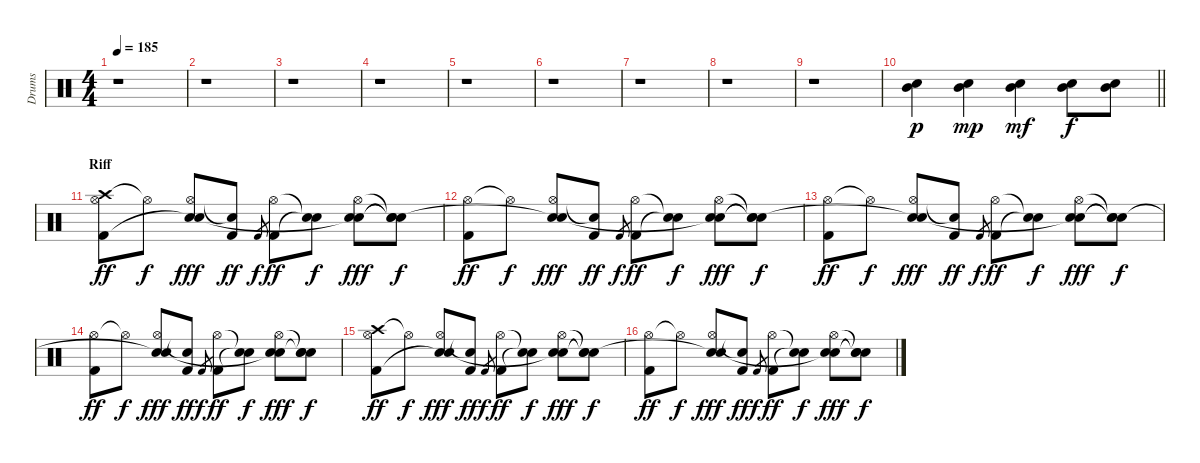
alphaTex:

\track ("Drums" "Drums") {instrument percussion}
\staff {score}
\articulation defaults
\ts (4 4)
\tempo 185
\clef neutral
\ks c
r.1{dy f} |
r.1 |
r.1 |
r.1 |
r.1 |
r.1 |
r.1 |
r.1 |
r.1 |
\barLineRight lightlight
("Electric Snare (hit)" "Mid Tom (hit)").4{dy p} ("Electric Snare (hit)" "Mid Tom (hit)").4{dy mp} ("Electric Snare (hit)" "Mid Tom (hit)").4{dy mf} ("Electric Snare (hit)" "Mid Tom (hit)").8{dy f} ("Electric Snare (hit)" "Mid Tom (hit)").8 |
\section ("" "Riff")
("Crash high (hit)" "Hi-Hat (open)" "Kick (hit) 2").8{dy ff} "Hi-Hat (open)"{t}.8{dy f} ("Hi-Hat (open)" "Electric Snare (hit)" "Snare (hit)"{t}).8{dy fff} ("Snare (hit)"{t} "Kick (hit) 2").8{dy ff} "Kick (hit) 2".8{gr dy f} ("Hi-Hat (open)" "Kick (hit) 2").8{dy ff} ("Snare (hit)"{t} "Snare (hit)"{t}).8{dy f} ("Hi-Hat (open)" "Electric Snare (hit)" "Snare (hit)"{t}).8{dy fff} ("Snare (hit)"{t} "Snare (hit)"{t} "Snare (hit)"{t}).8{dy f} |
("Hi-Hat (open)" "Kick (hit) 2").8{dy ff} "Hi-Hat (open)"{t}.8{dy f} ("Hi-Hat (open)" "Electric Snare (hit)" "Snare (hit)"{t}).8{dy fff} ("Snare (hit)"{t} "Kick (hit) 2").8{dy ff} "Kick (hit) 2".8{gr dy f} ("Hi-Hat (open)" "Kick (hit) 2").8{dy ff} ("Snare (hit)"{t} "Snare (hit)"{t}).8{dy f} ("Hi-Hat (open)" "Electric Snare (hit)" "Snare (hit)"{t}).8{dy fff} ("Snare (hit)"{t} "Snare (hit)"{t} "Snare (hit)"{t}).8{dy f} |
("Hi-Hat (open)" "Kick (hit) 2").8{dy ff} "Hi-Hat (open)"{t}.8{dy f} ("Hi-Hat (open)" "Electric Snare (hit)" "Snare (hit)"{t}).8{dy fff} ("Snare (hit)"{t} "Kick (hit) 2").8{dy ff} "Kick (hit) 2".8{gr dy f} ("Hi-Hat (open)" "Kick (hit) 2").8{dy ff} ("Snare (hit)"{t} "Snare (hit)"{t}).8{dy f} ("Hi-Hat (open)" "Electric Snare (hit)" "Snare (hit)"{t}).8{dy fff} ("Snare (hit)"{t} "Snare (hit)"{t} "Snare (hit)"{t}).8{dy f} |
("Hi-Hat (open)" "Kick (hit) 2").8{dy ff} "Hi-Hat (open)"{t}.8{dy f} ("Hi-Hat (open)" "Electric Snare (hit)" "Snare (hit)"{t}).8{dy fff} ("Snare (hit)"{t} "Kick (hit) 2").8{dy ff} "Kick (hit) 2".8{gr dy f} ("Hi-Hat (open)" "Kick (hit) 2").8{dy ff} ("Snare (hit)"{t} "Snare (hit)"{t}).8{dy f} ("Hi-Hat (open)" "Electric Snare (hit)" "Snare (hit)"{t}).8{dy fff} ("Snare (hit)"{t} "Electric Snare (hit)" "Snare (hit)"{t}).8{dy f} |
("Crash high (hit)" "Hi-Hat (open)" "Kick (hit) 2").8{dy ff} "Hi-Hat (open)"{t}.8{dy f} ("Hi-Hat (open)" "Electric Snare (hit)" "Snare (hit)"{t}).8{dy fff} ("Snare (hit)"{t} "Kick (hit) 2").8{dy ff} "Kick (hit) 2".8{gr dy f} ("Hi-Hat (open)" "Kick (hit) 2").8{dy ff} ("Snare (hit)"{t} "Snare (hit)"{t}).8{dy f} ("Hi-Hat (open)" "Electric Snare (hit)" "Snare (hit)"{t}).8{dy fff} ("Snare (hit)"{t} "Snare (hit)"{t} "Snare (hit)"{t}).8{dy f} |
("Hi-Hat (open)" "Kick (hit) 2").8{dy ff} "Hi-Hat (open)"{t}.8{dy f} ("Hi-Hat (open)" "Electric Snare (hit)" "Snare (hit)"{t}).8{dy fff} ("Snare (hit)"{t} "Kick (hit) 2").8{dy ff} "Kick (hit) 2".8{gr dy f} ("Hi-Hat (open)" "Kick (hit) 2").8{dy ff} ("Snare (hit)"{t} "Snare (hit)"{t}).8{dy f} ("Hi-Hat (open)" "Electric Snare (hit)" "Snare (hit)"{t}).8{dy fff} ("Snare (hit)"{t} "Snare (hit)"{t} "Snare (hit)"{t}).8{dy f}
